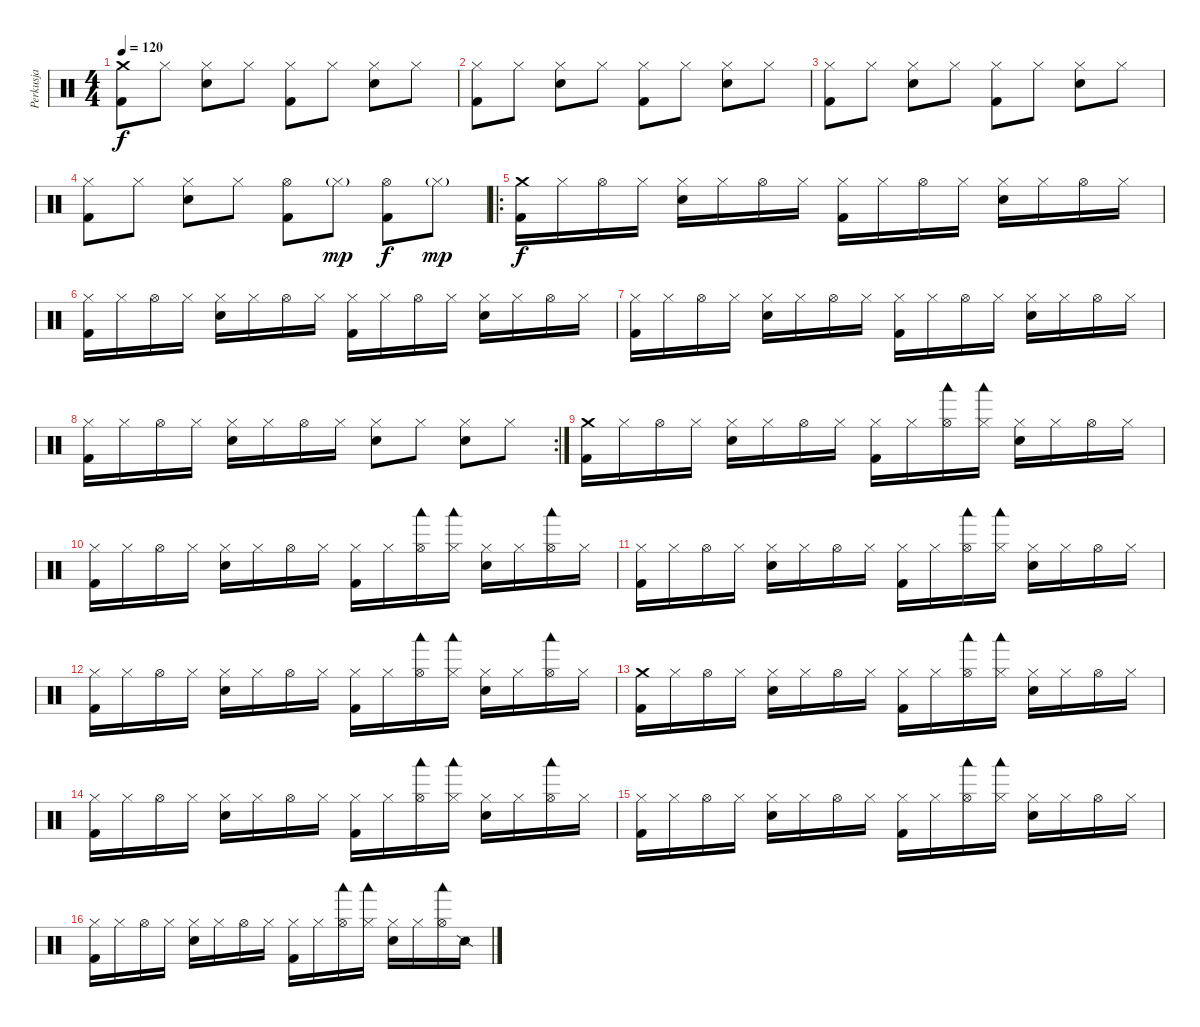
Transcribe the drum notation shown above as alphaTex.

\track ("Perkusja" "Perkusja") {instrument percussion}
\staff {score}
\articulation defaults
\ts (4 4)
\tempo 120
\clef neutral
\ks c
("Crash medium (hit)" "Kick (hit) 2").8{dy f} "Hi-Hat (closed)".8 ("Hi-Hat (closed)" "Snare (hit) 2").8 "Hi-Hat (closed)".8 ("Hi-Hat (closed)" "Kick (hit) 2").8 "Hi-Hat (closed)".8 ("Hi-Hat (closed)" "Snare (hit) 2").8 "Hi-Hat (closed)".8 |
("Hi-Hat (closed)" "Kick (hit) 2").8 "Hi-Hat (closed)".8 ("Hi-Hat (closed)" "Snare (hit) 2").8 "Hi-Hat (closed)".8 ("Hi-Hat (closed)" "Kick (hit) 2").8 "Hi-Hat (closed)".8 ("Hi-Hat (closed)" "Snare (hit) 2").8 "Hi-Hat (closed)".8 |
("Hi-Hat (closed)" "Kick (hit) 2").8 "Hi-Hat (closed)".8 ("Hi-Hat (closed)" "Snare (hit) 2").8 "Hi-Hat (closed)".8 ("Hi-Hat (closed)" "Kick (hit) 2").8 "Hi-Hat (closed)".8 ("Hi-Hat (closed)" "Snare (hit) 2").8 "Hi-Hat (closed)".8 |
("Hi-Hat (closed)" "Kick (hit) 2").8 "Hi-Hat (closed)".8 ("Hi-Hat (closed)" "Snare (hit) 2").8 "Hi-Hat (closed)".8 ("Hi-Hat (open)" "Kick (hit) 2").8 "Hi-Hat (closed)"{g}.8{dy mp} ("Hi-Hat (open)" "Kick (hit) 2").8{dy f} "Hi-Hat (closed)"{g}.8{dy mp} |
\ro
("Crash medium (hit)" "Kick (hit) 2").16{dy f} "Hi-Hat (closed)".16 "Hi-Hat (open)".16 "Hi-Hat (closed)".16 ("Hi-Hat (closed)" "Snare (hit) 2").16 "Hi-Hat (closed)".16 "Hi-Hat (open)".16 "Hi-Hat (closed)".16 ("Hi-Hat (closed)" "Kick (hit) 2").16 "Hi-Hat (closed)".16 "Hi-Hat (open)".16 "Hi-Hat (closed)".16 ("Hi-Hat (closed)" "Snare (hit) 2").16 "Hi-Hat (closed)".16 "Hi-Hat (open)".16 "Hi-Hat (closed)".16 |
("Hi-Hat (closed)" "Kick (hit) 2").16 "Hi-Hat (closed)".16 "Hi-Hat (open)".16 "Hi-Hat (closed)".16 ("Hi-Hat (closed)" "Snare (hit) 2").16 "Hi-Hat (closed)".16 "Hi-Hat (open)".16 "Hi-Hat (closed)".16 ("Hi-Hat (closed)" "Kick (hit) 2").16 "Hi-Hat (closed)".16 "Hi-Hat (open)".16 "Hi-Hat (closed)".16 ("Hi-Hat (closed)" "Snare (hit) 2").16 "Hi-Hat (closed)".16 "Hi-Hat (open)".16 "Hi-Hat (closed)".16 |
("Hi-Hat (closed)" "Kick (hit) 2").16 "Hi-Hat (closed)".16 "Hi-Hat (open)".16 "Hi-Hat (closed)".16 ("Hi-Hat (closed)" "Snare (hit) 2").16 "Hi-Hat (closed)".16 "Hi-Hat (open)".16 "Hi-Hat (closed)".16 ("Hi-Hat (closed)" "Kick (hit) 2").16 "Hi-Hat (closed)".16 "Hi-Hat (open)".16 "Hi-Hat (closed)".16 ("Hi-Hat (closed)" "Snare (hit) 2").16 "Hi-Hat (closed)".16 "Hi-Hat (open)".16 "Hi-Hat (closed)".16 |
\rc 2
("Hi-Hat (closed)" "Kick (hit) 2").16 "Hi-Hat (closed)".16 "Hi-Hat (open)".16 "Hi-Hat (closed)".16 ("Hi-Hat (closed)" "Snare (hit) 2").16 "Hi-Hat (closed)".16 "Hi-Hat (open)".16 "Hi-Hat (closed)".16 ("Hi-Hat (closed)" "Snare (hit) 2").8 "Hi-Hat (closed)".8 ("Hi-Hat (closed)" "Snare (hit) 2").8 "Hi-Hat (closed)".8 |
("Crash medium (hit)" "Kick (hit) 2").16 "Hi-Hat (closed)".16 "Hi-Hat (open)".16 "Hi-Hat (closed)".16 ("Hi-Hat (closed)" "Snare (hit) 2").16 "Hi-Hat (closed)".16 "Hi-Hat (open)".16 "Hi-Hat (closed)".16 ("Hi-Hat (closed)" "Kick (hit) 2").16 "Hi-Hat (closed)".16 ("Hi-Hat (open)" "Woodblock low (hit)").16 ("Hi-Hat (closed)" "Woodblock low (hit)").16 ("Hi-Hat (closed)" "Snare (hit) 2").16 "Hi-Hat (closed)".16 "Hi-Hat (open)".16 "Hi-Hat (closed)".16 |
("Hi-Hat (closed)" "Kick (hit) 2").16 "Hi-Hat (closed)".16 "Hi-Hat (open)".16 "Hi-Hat (closed)".16 ("Hi-Hat (closed)" "Snare (hit) 2").16 "Hi-Hat (closed)".16 "Hi-Hat (open)".16 "Hi-Hat (closed)".16 ("Hi-Hat (closed)" "Kick (hit) 2").16 "Hi-Hat (closed)".16 ("Hi-Hat (open)" "Woodblock low (hit)").16 ("Hi-Hat (closed)" "Woodblock low (hit)").16 ("Hi-Hat (closed)" "Snare (hit) 2").16 "Hi-Hat (closed)".16 ("Hi-Hat (open)" "Woodblock low (hit)").16 "Hi-Hat (closed)".16 |
("Hi-Hat (closed)" "Kick (hit) 2").16 "Hi-Hat (closed)".16 "Hi-Hat (open)".16 "Hi-Hat (closed)".16 ("Hi-Hat (closed)" "Snare (hit) 2").16 "Hi-Hat (closed)".16 "Hi-Hat (open)".16 "Hi-Hat (closed)".16 ("Hi-Hat (closed)" "Kick (hit) 2").16 "Hi-Hat (closed)".16 ("Hi-Hat (open)" "Woodblock low (hit)").16 ("Hi-Hat (closed)" "Woodblock low (hit)").16 ("Hi-Hat (closed)" "Snare (hit) 2").16 "Hi-Hat (closed)".16 "Hi-Hat (open)".16 "Hi-Hat (closed)".16 |
("Hi-Hat (closed)" "Kick (hit) 2").16 "Hi-Hat (closed)".16 "Hi-Hat (open)".16 "Hi-Hat (closed)".16 ("Hi-Hat (closed)" "Snare (hit) 2").16 "Hi-Hat (closed)".16 "Hi-Hat (open)".16 "Hi-Hat (closed)".16 ("Hi-Hat (closed)" "Kick (hit) 2").16 "Hi-Hat (closed)".16 ("Hi-Hat (open)" "Woodblock low (hit)").16 ("Hi-Hat (closed)" "Woodblock low (hit)").16 ("Hi-Hat (closed)" "Snare (hit) 2").16 "Hi-Hat (closed)".16 ("Hi-Hat (open)" "Woodblock low (hit)").16 "Hi-Hat (closed)".16 |
("Crash medium (hit)" "Kick (hit) 2").16 "Hi-Hat (closed)".16 "Hi-Hat (open)".16 "Hi-Hat (closed)".16 ("Hi-Hat (closed)" "Snare (hit) 2").16 "Hi-Hat (closed)".16 "Hi-Hat (open)".16 "Hi-Hat (closed)".16 ("Hi-Hat (closed)" "Kick (hit) 2").16 "Hi-Hat (closed)".16 ("Hi-Hat (open)" "Woodblock low (hit)").16 ("Hi-Hat (closed)" "Woodblock low (hit)").16 ("Hi-Hat (closed)" "Snare (hit) 2").16 "Hi-Hat (closed)".16 "Hi-Hat (open)".16 "Hi-Hat (closed)".16 |
("Hi-Hat (closed)" "Kick (hit) 2").16 "Hi-Hat (closed)".16 "Hi-Hat (open)".16 "Hi-Hat (closed)".16 ("Hi-Hat (closed)" "Snare (hit) 2").16 "Hi-Hat (closed)".16 "Hi-Hat (open)".16 "Hi-Hat (closed)".16 ("Hi-Hat (closed)" "Kick (hit) 2").16 "Hi-Hat (closed)".16 ("Hi-Hat (open)" "Woodblock low (hit)").16 ("Hi-Hat (closed)" "Woodblock low (hit)").16 ("Hi-Hat (closed)" "Snare (hit) 2").16 "Hi-Hat (closed)".16 ("Hi-Hat (open)" "Woodblock low (hit)").16 "Hi-Hat (closed)".16 |
("Hi-Hat (closed)" "Kick (hit) 2").16 "Hi-Hat (closed)".16 "Hi-Hat (open)".16 "Hi-Hat (closed)".16 ("Hi-Hat (closed)" "Snare (hit) 2").16 "Hi-Hat (closed)".16 "Hi-Hat (open)".16 "Hi-Hat (closed)".16 ("Hi-Hat (closed)" "Kick (hit) 2").16 "Hi-Hat (closed)".16 ("Hi-Hat (open)" "Woodblock low (hit)").16 ("Hi-Hat (closed)" "Woodblock low (hit)").16 ("Hi-Hat (closed)" "Snare (hit) 2").16 "Hi-Hat (closed)".16 "Hi-Hat (open)".16 "Hi-Hat (closed)".16 |
("Hi-Hat (closed)" "Kick (hit) 2").16 "Hi-Hat (closed)".16 "Hi-Hat (open)".16 "Hi-Hat (closed)".16 ("Hi-Hat (closed)" "Snare (hit) 2").16 "Hi-Hat (closed)".16 "Hi-Hat (open)".16 "Hi-Hat (closed)".16 ("Hi-Hat (closed)" "Kick (hit) 2").16 "Hi-Hat (closed)".16 ("Hi-Hat (open)" "Woodblock low (hit)").16 ("Hi-Hat (closed)" "Woodblock low (hit)").16 ("Hi-Hat (closed)" "Snare (hit) 2").16 "Hi-Hat (closed)".16 ("Hi-Hat (open)" "Woodblock low (hit)").16 "Snare (side stick) 2".16
